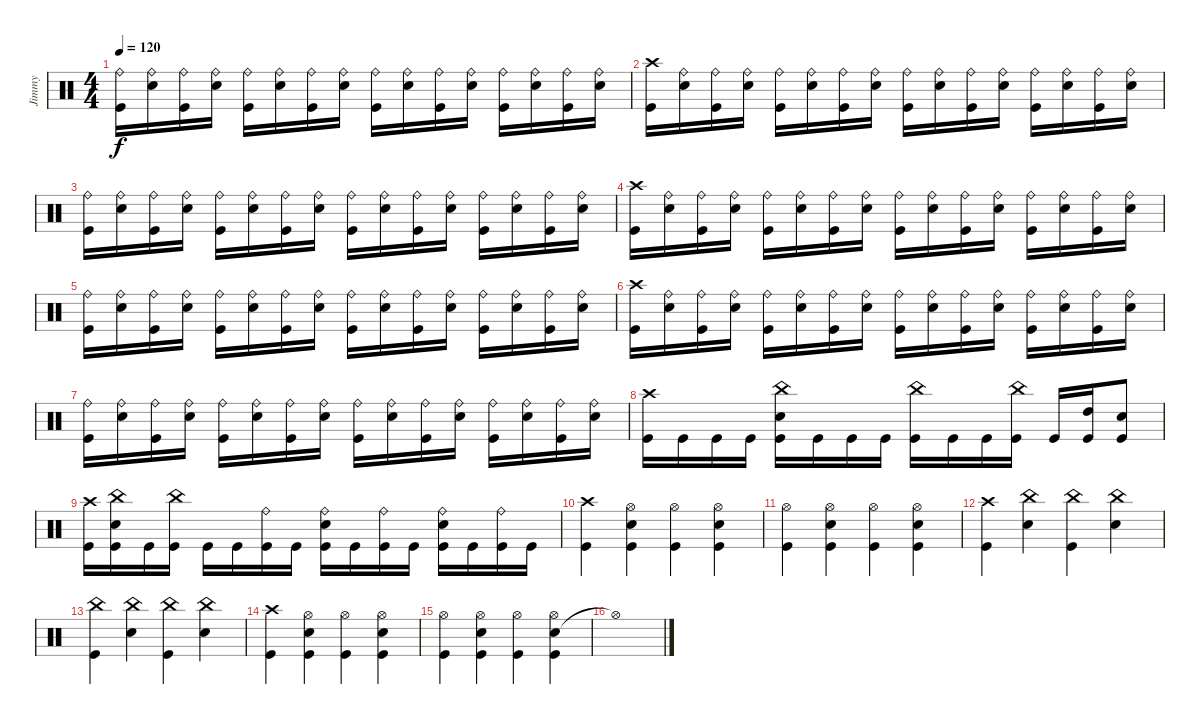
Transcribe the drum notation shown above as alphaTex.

\track ("Jimmy" "Jimmy") {instrument percussion}
\staff {score}
\articulation defaults
\ts (4 4)
\tempo 120
\clef neutral
\ks c
("Ride (bell)" "Kick (hit)").16{dy f} ("Snare (hit) 2" "Ride (bell)").16 ("Kick (hit)" "Ride (bell)").16 ("Snare (hit) 2" "Ride (bell)").16 ("Kick (hit)" "Ride (bell)").16 ("Snare (hit) 2" "Ride (bell)").16 ("Kick (hit)" "Ride (bell)").16 ("Snare (hit) 2" "Ride (bell)").16 ("Kick (hit)" "Ride (bell)").16 ("Snare (hit) 2" "Ride (bell)").16 ("Kick (hit)" "Ride (bell)").16 ("Snare (hit) 2" "Ride (bell)").16 ("Kick (hit)" "Ride (bell)").16 ("Snare (hit) 2" "Ride (bell)").16 ("Kick (hit)" "Ride (bell)").16 ("Snare (hit) 2" "Ride (bell)").16 |
("Kick (hit)" "Crash high (hit)").16 ("Snare (hit) 2" "Ride (bell)").16 ("Kick (hit)" "Ride (bell)").16 ("Snare (hit) 2" "Ride (bell)").16 ("Kick (hit)" "Ride (bell)").16 ("Snare (hit) 2" "Ride (bell)").16 ("Kick (hit)" "Ride (bell)").16 ("Snare (hit) 2" "Ride (bell)").16 ("Kick (hit)" "Ride (bell)").16 ("Snare (hit) 2" "Ride (bell)").16 ("Kick (hit)" "Ride (bell)").16 ("Snare (hit) 2" "Ride (bell)").16 ("Kick (hit)" "Ride (bell)").16 ("Snare (hit) 2" "Ride (bell)").16 ("Kick (hit)" "Ride (bell)").16 ("Snare (hit) 2" "Ride (bell)").16 |
("Kick (hit)" "Ride (bell)").16 ("Snare (hit) 2" "Ride (bell)").16 ("Kick (hit)" "Ride (bell)").16 ("Snare (hit) 2" "Ride (bell)").16 ("Kick (hit)" "Ride (bell)").16 ("Snare (hit) 2" "Ride (bell)").16 ("Kick (hit)" "Ride (bell)").16 ("Snare (hit) 2" "Ride (bell)").16 ("Kick (hit)" "Ride (bell)").16 ("Snare (hit) 2" "Ride (bell)").16 ("Kick (hit)" "Ride (bell)").16 ("Snare (hit) 2" "Ride (bell)").16 ("Kick (hit)" "Ride (bell)").16 ("Snare (hit) 2" "Ride (bell)").16 ("Kick (hit)" "Ride (bell)").16 ("Snare (hit) 2" "Ride (bell)").16 |
("Kick (hit)" "Crash high (hit)").16 ("Snare (hit) 2" "Ride (bell)").16 ("Kick (hit)" "Ride (bell)").16 ("Snare (hit) 2" "Ride (bell)").16 ("Kick (hit)" "Ride (bell)").16 ("Snare (hit) 2" "Ride (bell)").16 ("Kick (hit)" "Ride (bell)").16 ("Snare (hit) 2" "Ride (bell)").16 ("Kick (hit)" "Ride (bell)").16 ("Snare (hit) 2" "Ride (bell)").16 ("Kick (hit)" "Ride (bell)").16 ("Snare (hit) 2" "Ride (bell)").16 ("Kick (hit)" "Ride (bell)").16 ("Snare (hit) 2" "Ride (bell)").16 ("Kick (hit)" "Ride (bell)").16 ("Snare (hit) 2" "Ride (bell)").16 |
("Kick (hit)" "Ride (bell)").16 ("Snare (hit) 2" "Ride (bell)").16 ("Kick (hit)" "Ride (bell)").16 ("Snare (hit) 2" "Ride (bell)").16 ("Kick (hit)" "Ride (bell)").16 ("Snare (hit) 2" "Ride (bell)").16 ("Kick (hit)" "Ride (bell)").16 ("Snare (hit) 2" "Ride (bell)").16 ("Kick (hit)" "Ride (bell)").16 ("Snare (hit) 2" "Ride (bell)").16 ("Kick (hit)" "Ride (bell)").16 ("Snare (hit) 2" "Ride (bell)").16 ("Kick (hit)" "Ride (bell)").16 ("Snare (hit) 2" "Ride (bell)").16 ("Kick (hit)" "Ride (bell)").16 ("Snare (hit) 2" "Ride (bell)").16 |
("Kick (hit)" "Crash high (hit)").16 ("Snare (hit) 2" "Ride (bell)").16 ("Kick (hit)" "Ride (bell)").16 ("Snare (hit) 2" "Ride (bell)").16 ("Kick (hit)" "Ride (bell)").16 ("Snare (hit) 2" "Ride (bell)").16 ("Kick (hit)" "Ride (bell)").16 ("Snare (hit) 2" "Ride (bell)").16 ("Kick (hit)" "Ride (bell)").16 ("Snare (hit) 2" "Ride (bell)").16 ("Kick (hit)" "Ride (bell)").16 ("Snare (hit) 2" "Ride (bell)").16 ("Kick (hit)" "Ride (bell)").16 ("Snare (hit) 2" "Ride (bell)").16 ("Kick (hit)" "Ride (bell)").16 ("Snare (hit) 2" "Ride (bell)").16 |
("Kick (hit)" "Ride (bell)").16 ("Snare (hit) 2" "Ride (bell)").16 ("Kick (hit)" "Ride (bell)").16 ("Snare (hit) 2" "Ride (bell)").16 ("Kick (hit)" "Ride (bell)").16 ("Snare (hit) 2" "Ride (bell)").16 ("Kick (hit)" "Ride (bell)").16 ("Snare (hit) 2" "Ride (bell)").16 ("Kick (hit)" "Ride (bell)").16 ("Snare (hit) 2" "Ride (bell)").16 ("Kick (hit)" "Ride (bell)").16 ("Snare (hit) 2" "Ride (bell)").16 ("Kick (hit)" "Ride (bell)").16 ("Snare (hit) 2" "Ride (bell)").16 ("Kick (hit)" "Ride (bell)").16 ("Snare (hit) 2" "Ride (bell)").16 |
("Crash high (hit)" "Kick (hit)").16 "Kick (hit)".16 "Kick (hit)".16 "Kick (hit)".16 ("China (hit)" "Snare (hit) 2" "Kick (hit)").16 "Kick (hit)".16 "Kick (hit)".16 "Kick (hit)".16 ("China (hit)" "Kick (hit)").16 "Kick (hit)".16 "Kick (hit)".16 ("China (hit)" "Kick (hit)").16 "Kick (hit)".16 ("High Tom (hit)" "Kick (hit)").16 ("Snare (hit) 2" "Kick (hit)").8 |
("Crash high (hit)" "Kick (hit)").16 ("China (hit)" "Snare (hit) 2" "Kick (hit)").16 "Kick (hit)".16 ("China (hit)" "Kick (hit)").16 "Kick (hit)".16 "Kick (hit)".16 ("Kick (hit)" "Ride (bell)").16 "Kick (hit)".16 ("Kick (hit)" "Ride (bell)" "Snare (hit) 2").16 "Kick (hit)".16 ("Ride (bell)" "Kick (hit)").16 "Kick (hit)".16 ("Ride (bell)" "Kick (hit)" "Snare (hit) 2").16 "Kick (hit)".16 ("Ride (bell)" "Kick (hit)").16 "Kick (hit)".16 |
("Crash high (hit)" "Kick (hit)").4 ("Hi-Hat (open)" "Snare (hit) 2" "Kick (hit)").4 ("Hi-Hat (open)" "Kick (hit)").4 ("Snare (hit) 2" "Hi-Hat (open)" "Kick (hit)").4 |
("Hi-Hat (open)" "Kick (hit)").4 ("Hi-Hat (open)" "Snare (hit) 2" "Kick (hit)").4 ("Hi-Hat (open)" "Kick (hit)").4 ("Snare (hit) 2" "Hi-Hat (open)" "Kick (hit)").4 |
("Kick (hit)" "Crash high (hit)").4 ("China (hit)" "Snare (hit) 2").4 ("Kick (hit)" "China (hit)").4 ("China (hit)" "Snare (hit) 2").4 |
("China (hit)" "Kick (hit)").4 ("Snare (hit) 2" "China (hit)").4 ("Kick (hit)" "China (hit)").4 ("Snare (hit) 2" "China (hit)").4 |
("Crash high (hit)" "Kick (hit)").4 ("Hi-Hat (open)" "Snare (hit) 2" "Kick (hit)").4 ("Hi-Hat (open)" "Kick (hit)").4 ("Snare (hit) 2" "Hi-Hat (open)" "Kick (hit)").4 |
("Hi-Hat (open)" "Kick (hit)").4 ("Hi-Hat (open)" "Snare (hit) 2" "Kick (hit)").4 ("Hi-Hat (open)" "Kick (hit)").4 ("Snare (hit) 2" "Hi-Hat (open)" "Kick (hit)").4 |
"Hi-Hat (open)"{t}.1
